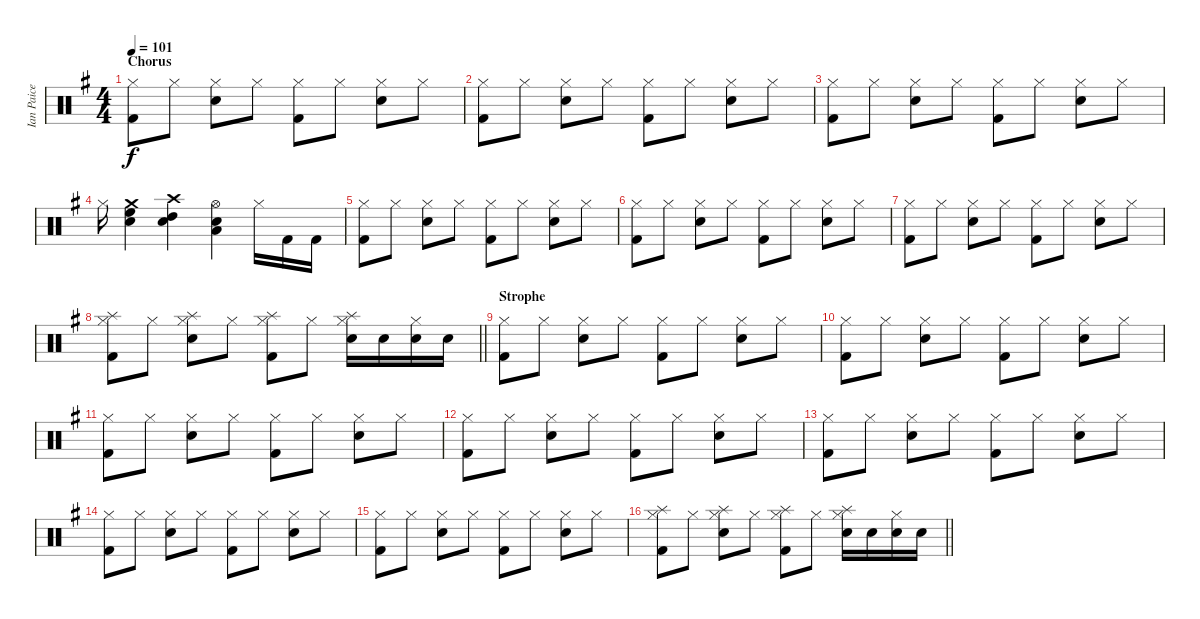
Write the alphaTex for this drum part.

\track ("Ian Paice" "Ian Paice") {instrument percussion}
\staff {score}
\articulation defaults
\ts (4 4)
\section ("" "Chorus")
\tempo 101
\clef neutral
\ks g
("Hi-Hat (closed)" "Kick (hit) 2").8{dy f} "Hi-Hat (closed)".8 ("Hi-Hat (closed)" "Snare (hit) 2").8 "Hi-Hat (closed)".8 ("Hi-Hat (closed)" "Kick (hit) 2").8 "Hi-Hat (closed)".8 ("Hi-Hat (closed)" "Snare (hit) 2").8 "Hi-Hat (closed)".8 |
("Hi-Hat (closed)" "Kick (hit) 2").8 "Hi-Hat (closed)".8 ("Hi-Hat (closed)" "Snare (hit) 2").8 "Hi-Hat (closed)".8 ("Hi-Hat (closed)" "Kick (hit) 2").8 "Hi-Hat (closed)".8 ("Hi-Hat (closed)" "Snare (hit) 2").8 "Hi-Hat (closed)".8 |
("Hi-Hat (closed)" "Kick (hit) 2").8 "Hi-Hat (closed)".8 ("Hi-Hat (closed)" "Snare (hit) 2").8 "Hi-Hat (closed)".8 ("Hi-Hat (closed)" "Kick (hit) 2").8 "Hi-Hat (closed)".8 ("Hi-Hat (closed)" "Snare (hit) 2").8 "Hi-Hat (closed)".8 |
"Hi-Hat (closed)".16 ("Crash medium (hit)" "High Floor Tom (hit)" "Snare (hit) 2").4 ("Crash high (hit)" "High Tom (hit)" "Snare (hit) 2").4 ("Hi-Hat (open)" "Low Tom (hit)" "Snare (hit) 2").4 "Hi-Hat (closed)".16 "Kick (hit) 2".16 "Kick (hit) 2".16 |
("Hi-Hat (closed)" "Kick (hit) 2").8 "Hi-Hat (closed)".8 ("Hi-Hat (closed)" "Snare (hit) 2").8 "Hi-Hat (closed)".8 ("Hi-Hat (closed)" "Kick (hit) 2").8 "Hi-Hat (closed)".8 ("Hi-Hat (closed)" "Snare (hit) 2").8 "Hi-Hat (closed)".8 |
("Hi-Hat (closed)" "Kick (hit) 2").8 "Hi-Hat (closed)".8 ("Hi-Hat (closed)" "Snare (hit) 2").8 "Hi-Hat (closed)".8 ("Hi-Hat (closed)" "Kick (hit) 2").8 "Hi-Hat (closed)".8 ("Hi-Hat (closed)" "Snare (hit) 2").8 "Hi-Hat (closed)".8 |
("Hi-Hat (closed)" "Kick (hit) 2").8 "Hi-Hat (closed)".8 ("Hi-Hat (closed)" "Snare (hit) 2").8 "Hi-Hat (closed)".8 ("Hi-Hat (closed)" "Kick (hit) 2").8 "Hi-Hat (closed)".8 ("Hi-Hat (closed)" "Snare (hit) 2").8 "Hi-Hat (closed)".8 |
\barLineRight lightlight
("Splash (hit)" "Hi-Hat (closed)" "Kick (hit) 2").8 "Hi-Hat (closed)".8 ("Splash (hit)" "Hi-Hat (closed)" "Snare (hit) 2").8 "Hi-Hat (closed)".8 ("Splash (hit)" "Hi-Hat (closed)" "Kick (hit) 2").8 "Hi-Hat (closed)".8 ("Splash (hit)" "Hi-Hat (closed)" "Snare (hit) 2").16 "Snare (hit) 2".16 ("Hi-Hat (closed)" "Snare (hit) 2").16 "Snare (hit) 2".16 |
\section ("" "Strophe")
("Hi-Hat (closed)" "Kick (hit) 2").8 "Hi-Hat (closed)".8 ("Hi-Hat (closed)" "Snare (hit) 2").8 "Hi-Hat (closed)".8 ("Hi-Hat (closed)" "Kick (hit) 2").8 "Hi-Hat (closed)".8 ("Hi-Hat (closed)" "Snare (hit) 2").8 "Hi-Hat (closed)".8 |
("Hi-Hat (closed)" "Kick (hit) 2").8 "Hi-Hat (closed)".8 ("Hi-Hat (closed)" "Snare (hit) 2").8 "Hi-Hat (closed)".8 ("Hi-Hat (closed)" "Kick (hit) 2").8 "Hi-Hat (closed)".8 ("Hi-Hat (closed)" "Snare (hit) 2").8 "Hi-Hat (closed)".8 |
("Hi-Hat (closed)" "Kick (hit) 2").8 "Hi-Hat (closed)".8 ("Hi-Hat (closed)" "Snare (hit) 2").8 "Hi-Hat (closed)".8 ("Hi-Hat (closed)" "Kick (hit) 2").8 "Hi-Hat (closed)".8 ("Hi-Hat (closed)" "Snare (hit) 2").8 "Hi-Hat (closed)".8 |
("Hi-Hat (closed)" "Kick (hit) 2").8 "Hi-Hat (closed)".8 ("Hi-Hat (closed)" "Snare (hit) 2").8 "Hi-Hat (closed)".8 ("Hi-Hat (closed)" "Kick (hit) 2").8 "Hi-Hat (closed)".8 ("Hi-Hat (closed)" "Snare (hit) 2").8 "Hi-Hat (closed)".8 |
("Hi-Hat (closed)" "Kick (hit) 2").8 "Hi-Hat (closed)".8 ("Hi-Hat (closed)" "Snare (hit) 2").8 "Hi-Hat (closed)".8 ("Hi-Hat (closed)" "Kick (hit) 2").8 "Hi-Hat (closed)".8 ("Hi-Hat (closed)" "Snare (hit) 2").8 "Hi-Hat (closed)".8 |
("Hi-Hat (closed)" "Kick (hit) 2").8 "Hi-Hat (closed)".8 ("Hi-Hat (closed)" "Snare (hit) 2").8 "Hi-Hat (closed)".8 ("Hi-Hat (closed)" "Kick (hit) 2").8 "Hi-Hat (closed)".8 ("Hi-Hat (closed)" "Snare (hit) 2").8 "Hi-Hat (closed)".8 |
("Hi-Hat (closed)" "Kick (hit) 2").8 "Hi-Hat (closed)".8 ("Hi-Hat (closed)" "Snare (hit) 2").8 "Hi-Hat (closed)".8 ("Hi-Hat (closed)" "Kick (hit) 2").8 "Hi-Hat (closed)".8 ("Hi-Hat (closed)" "Snare (hit) 2").8 "Hi-Hat (closed)".8 |
\barLineRight lightlight
("Splash (hit)" "Hi-Hat (closed)" "Kick (hit) 2").8 "Hi-Hat (closed)".8 ("Splash (hit)" "Hi-Hat (closed)" "Snare (hit) 2").8 "Hi-Hat (closed)".8 ("Splash (hit)" "Hi-Hat (closed)" "Kick (hit) 2").8 "Hi-Hat (closed)".8 ("Splash (hit)" "Hi-Hat (closed)" "Snare (hit) 2").16 "Snare (hit) 2".16 ("Hi-Hat (closed)" "Snare (hit) 2").16 "Snare (hit) 2".16
